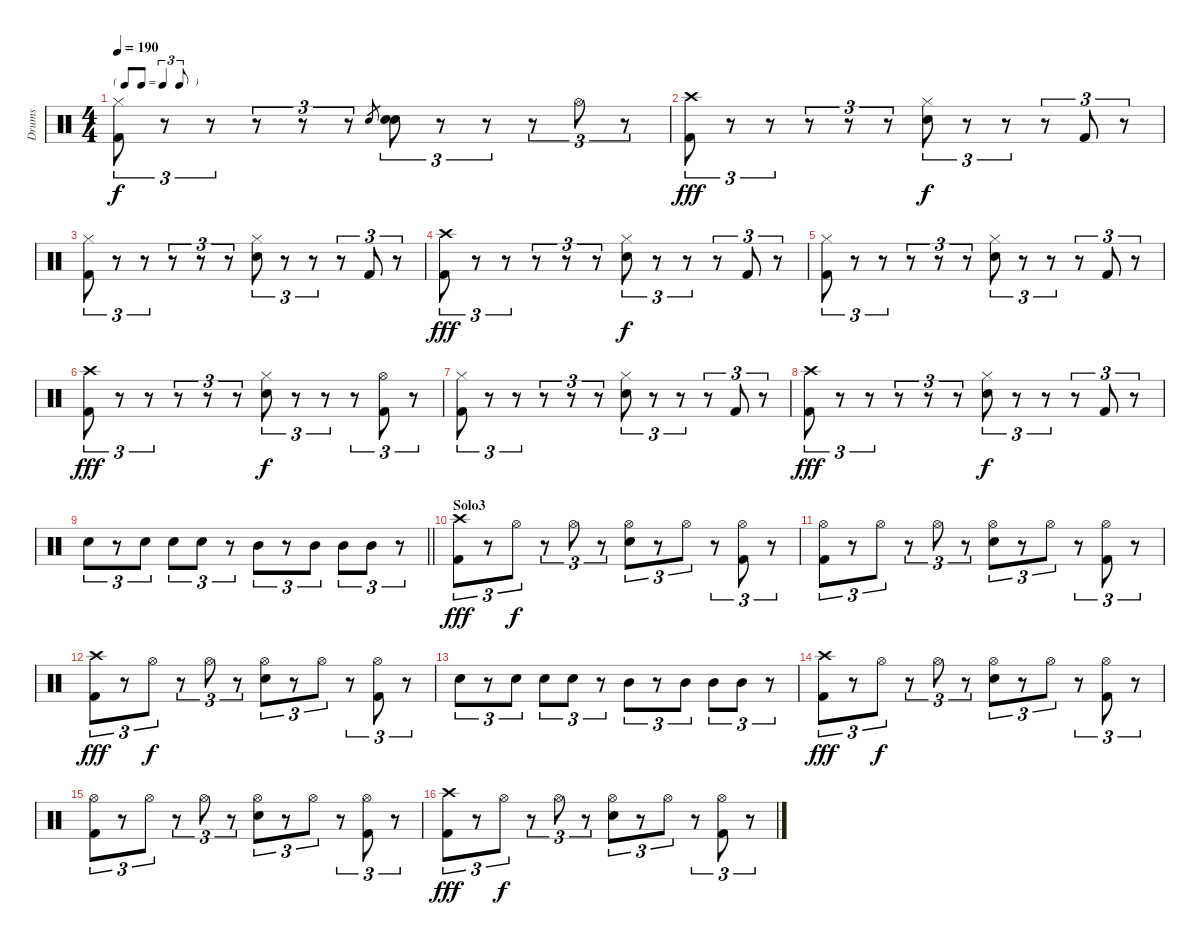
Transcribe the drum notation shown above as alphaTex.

\track ("Drums" "Drums") {instrument percussion}
\staff {score}
\articulation defaults
\ts (4 4)
\tf triplet8th
\tempo 190
\clef neutral
\ks c
("Hi-Hat (closed)" "Kick (hit) 2").8{tu (3 2) dy f} r.8{tu (3 2)} r.8{tu (3 2)} r.8{tu (3 2)} r.8{tu (3 2)} r.8{tu (3 2)} "Electric Snare (hit)".8{gr} ("Electric Snare (hit)" "Electric Snare (hit)").8{tu (3 2)} r.8{tu (3 2)} r.8{tu (3 2)} r.8{tu (3 2)} "Hi-Hat (open)".8{tu (3 2)} r.8{tu (3 2)} |
("Crash high (hit)" "Kick (hit) 2").8{tu (3 2) dy fff} r.8{tu (3 2)} r.8{tu (3 2)} r.8{tu (3 2)} r.8{tu (3 2)} r.8{tu (3 2)} ("Hi-Hat (closed)" "Electric Snare (hit)").8{tu (3 2) dy f} r.8{tu (3 2)} r.8{tu (3 2)} r.8{tu (3 2)} "Kick (hit) 2".8{tu (3 2)} r.8{tu (3 2)} |
("Hi-Hat (closed)" "Kick (hit) 2").8{tu (3 2)} r.8{tu (3 2)} r.8{tu (3 2)} r.8{tu (3 2)} r.8{tu (3 2)} r.8{tu (3 2)} ("Hi-Hat (closed)" "Electric Snare (hit)").8{tu (3 2)} r.8{tu (3 2)} r.8{tu (3 2)} r.8{tu (3 2)} "Kick (hit) 2".8{tu (3 2)} r.8{tu (3 2)} |
("Crash high (hit)" "Kick (hit) 2").8{tu (3 2) dy fff} r.8{tu (3 2)} r.8{tu (3 2)} r.8{tu (3 2)} r.8{tu (3 2)} r.8{tu (3 2)} ("Hi-Hat (closed)" "Electric Snare (hit)").8{tu (3 2) dy f} r.8{tu (3 2)} r.8{tu (3 2)} r.8{tu (3 2)} "Kick (hit) 2".8{tu (3 2)} r.8{tu (3 2)} |
("Hi-Hat (closed)" "Kick (hit) 2").8{tu (3 2)} r.8{tu (3 2)} r.8{tu (3 2)} r.8{tu (3 2)} r.8{tu (3 2)} r.8{tu (3 2)} ("Hi-Hat (closed)" "Electric Snare (hit)").8{tu (3 2)} r.8{tu (3 2)} r.8{tu (3 2)} r.8{tu (3 2)} "Kick (hit) 2".8{tu (3 2)} r.8{tu (3 2)} |
("Crash high (hit)" "Kick (hit) 2").8{tu (3 2) dy fff} r.8{tu (3 2)} r.8{tu (3 2)} r.8{tu (3 2)} r.8{tu (3 2)} r.8{tu (3 2)} ("Hi-Hat (closed)" "Electric Snare (hit)").8{tu (3 2) dy f} r.8{tu (3 2)} r.8{tu (3 2)} r.8{tu (3 2)} ("Hi-Hat (open)" "Kick (hit) 2").8{tu (3 2)} r.8{tu (3 2)} |
("Hi-Hat (closed)" "Kick (hit) 2").8{tu (3 2)} r.8{tu (3 2)} r.8{tu (3 2)} r.8{tu (3 2)} r.8{tu (3 2)} r.8{tu (3 2)} ("Hi-Hat (closed)" "Electric Snare (hit)").8{tu (3 2)} r.8{tu (3 2)} r.8{tu (3 2)} r.8{tu (3 2)} "Kick (hit) 2".8{tu (3 2)} r.8{tu (3 2)} |
("Crash high (hit)" "Kick (hit) 2").8{tu (3 2) dy fff} r.8{tu (3 2)} r.8{tu (3 2)} r.8{tu (3 2)} r.8{tu (3 2)} r.8{tu (3 2)} ("Hi-Hat (closed)" "Electric Snare (hit)").8{tu (3 2) dy f} r.8{tu (3 2)} r.8{tu (3 2)} r.8{tu (3 2)} "Kick (hit) 2".8{tu (3 2)} r.8{tu (3 2)} |
\barLineRight lightlight "Electric Snare (hit)".8{tu (3 2)}
r.8{tu (3 2)} "Electric Snare (hit)".8{tu (3 2)} "Electric Snare (hit)".8{tu (3 2)} "Electric Snare (hit)".8{tu (3 2)} r.8{tu (3 2)} "Mid Tom (hit)".8{tu (3 2)} r.8{tu (3 2)} "Mid Tom (hit)".8{tu (3 2)} "Mid Tom (hit)".8{tu (3 2)} "Mid Tom (hit)".8{tu (3 2)} r.8{tu (3 2)} |
\section ("" "Solo3")
("Crash high (hit)" "Kick (hit) 2").8{tu (3 2) dy fff} r.8{tu (3 2)} "Hi-Hat (open)".8{tu (3 2) dy f} r.8{tu (3 2)} "Hi-Hat (open)".8{tu (3 2)} r.8{tu (3 2)} ("Hi-Hat (open)" "Electric Snare (hit)").8{tu (3 2)} r.8{tu (3 2)} "Hi-Hat (open)".8{tu (3 2)} r.8{tu (3 2)} ("Hi-Hat (open)" "Kick (hit) 2").8{tu (3 2)} r.8{tu (3 2)} |
("Hi-Hat (open)" "Kick (hit) 2").8{tu (3 2)} r.8{tu (3 2)} "Hi-Hat (open)".8{tu (3 2)} r.8{tu (3 2)} "Hi-Hat (open)".8{tu (3 2)} r.8{tu (3 2)} ("Hi-Hat (open)" "Electric Snare (hit)").8{tu (3 2)} r.8{tu (3 2)} "Hi-Hat (open)".8{tu (3 2)} r.8{tu (3 2)} ("Hi-Hat (open)" "Kick (hit) 2").8{tu (3 2)} r.8{tu (3 2)} |
("Crash high (hit)" "Kick (hit) 2").8{tu (3 2) dy fff} r.8{tu (3 2)} "Hi-Hat (open)".8{tu (3 2) dy f} r.8{tu (3 2)} "Hi-Hat (open)".8{tu (3 2)} r.8{tu (3 2)} ("Hi-Hat (open)" "Electric Snare (hit)").8{tu (3 2)} r.8{tu (3 2)} "Hi-Hat (open)".8{tu (3 2)} r.8{tu (3 2)} ("Hi-Hat (open)" "Kick (hit) 2").8{tu (3 2)} r.8{tu (3 2)} |
"Electric Snare (hit)".8{tu (3 2)} r.8{tu (3 2)} "Electric Snare (hit)".8{tu (3 2)} "Electric Snare (hit)".8{tu (3 2)} "Electric Snare (hit)".8{tu (3 2)} r.8{tu (3 2)} "Mid Tom (hit)".8{tu (3 2)} r.8{tu (3 2)} "Mid Tom (hit)".8{tu (3 2)} "Mid Tom (hit)".8{tu (3 2)} "Mid Tom (hit)".8{tu (3 2)} r.8{tu (3 2)} |
("Crash high (hit)" "Kick (hit) 2").8{tu (3 2) dy fff} r.8{tu (3 2)} "Hi-Hat (open)".8{tu (3 2) dy f} r.8{tu (3 2)} "Hi-Hat (open)".8{tu (3 2)} r.8{tu (3 2)} ("Hi-Hat (open)" "Electric Snare (hit)").8{tu (3 2)} r.8{tu (3 2)} "Hi-Hat (open)".8{tu (3 2)} r.8{tu (3 2)} ("Hi-Hat (open)" "Kick (hit) 2").8{tu (3 2)} r.8{tu (3 2)} |
("Hi-Hat (open)" "Kick (hit) 2").8{tu (3 2)} r.8{tu (3 2)} "Hi-Hat (open)".8{tu (3 2)} r.8{tu (3 2)} "Hi-Hat (open)".8{tu (3 2)} r.8{tu (3 2)} ("Hi-Hat (open)" "Electric Snare (hit)").8{tu (3 2)} r.8{tu (3 2)} "Hi-Hat (open)".8{tu (3 2)} r.8{tu (3 2)} ("Hi-Hat (open)" "Kick (hit) 2").8{tu (3 2)} r.8{tu (3 2)} |
("Crash high (hit)" "Kick (hit) 2").8{tu (3 2) dy fff} r.8{tu (3 2)} "Hi-Hat (open)".8{tu (3 2) dy f} r.8{tu (3 2)} "Hi-Hat (open)".8{tu (3 2)} r.8{tu (3 2)} ("Hi-Hat (open)" "Electric Snare (hit)").8{tu (3 2)} r.8{tu (3 2)} "Hi-Hat (open)".8{tu (3 2)} r.8{tu (3 2)} ("Hi-Hat (open)" "Kick (hit) 2").8{tu (3 2)} r.8{tu (3 2)}
